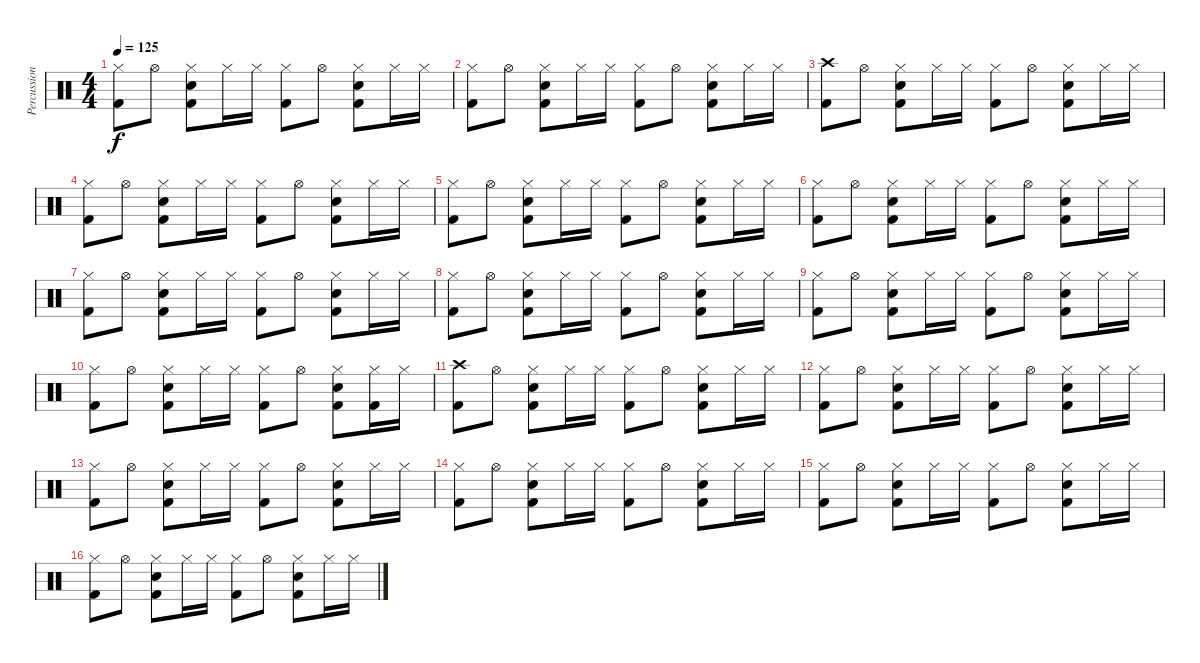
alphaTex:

\track ("Percussion" "Percussion") {instrument percussion}
\staff {score}
\articulation defaults
\ts (4 4)
\tempo 125
\clef neutral
\ks c
("Hi-Hat (closed)" "Kick (hit) 2").8{dy f} "Hi-Hat (open)".8 ("Hi-Hat (closed)" "Electric Snare (hit)" "Kick (hit) 2").8 "Hi-Hat (closed)".16 "Hi-Hat (closed)".16 ("Hi-Hat (closed)" "Kick (hit) 2").8 "Hi-Hat (open)".8 ("Hi-Hat (closed)" "Electric Snare (hit)" "Kick (hit) 2").8 "Hi-Hat (closed)".16 "Hi-Hat (closed)".16 |
("Hi-Hat (closed)" "Kick (hit) 2").8 "Hi-Hat (open)".8 ("Hi-Hat (closed)" "Electric Snare (hit)" "Kick (hit) 2").8 "Hi-Hat (closed)".16 "Hi-Hat (closed)".16 ("Hi-Hat (closed)" "Kick (hit) 2").8 "Hi-Hat (open)".8 ("Hi-Hat (closed)" "Electric Snare (hit)" "Kick (hit) 2").8 "Hi-Hat (closed)".16 "Hi-Hat (closed)".16 |
("Crash high (hit)" "Kick (hit) 2").8 "Hi-Hat (open)".8 ("Hi-Hat (closed)" "Electric Snare (hit)" "Kick (hit) 2").8 "Hi-Hat (closed)".16 "Hi-Hat (closed)".16 ("Hi-Hat (closed)" "Kick (hit) 2").8 "Hi-Hat (open)".8 ("Hi-Hat (closed)" "Electric Snare (hit)" "Kick (hit) 2").8 "Hi-Hat (closed)".16 "Hi-Hat (closed)".16 |
("Hi-Hat (closed)" "Kick (hit) 2").8 "Hi-Hat (open)".8 ("Hi-Hat (closed)" "Electric Snare (hit)" "Kick (hit) 2").8 "Hi-Hat (closed)".16 "Hi-Hat (closed)".16 ("Hi-Hat (closed)" "Kick (hit) 2").8 "Hi-Hat (open)".8 ("Hi-Hat (closed)" "Electric Snare (hit)" "Kick (hit) 2").8 "Hi-Hat (closed)".16 "Hi-Hat (closed)".16 |
("Hi-Hat (closed)" "Kick (hit) 2").8 "Hi-Hat (open)".8 ("Hi-Hat (closed)" "Electric Snare (hit)" "Kick (hit) 2").8 "Hi-Hat (closed)".16 "Hi-Hat (closed)".16 ("Hi-Hat (closed)" "Kick (hit) 2").8 "Hi-Hat (open)".8 ("Hi-Hat (closed)" "Electric Snare (hit)" "Kick (hit) 2").8 "Hi-Hat (closed)".16 "Hi-Hat (closed)".16 |
("Hi-Hat (closed)" "Kick (hit) 2").8 "Hi-Hat (open)".8 ("Hi-Hat (closed)" "Electric Snare (hit)" "Kick (hit) 2").8 "Hi-Hat (closed)".16 "Hi-Hat (closed)".16 ("Hi-Hat (closed)" "Kick (hit) 2").8 "Hi-Hat (open)".8 ("Hi-Hat (closed)" "Electric Snare (hit)" "Kick (hit) 2").8 "Hi-Hat (closed)".16 "Hi-Hat (closed)".16 |
("Hi-Hat (closed)" "Kick (hit) 2").8 "Hi-Hat (open)".8 ("Hi-Hat (closed)" "Electric Snare (hit)" "Kick (hit) 2").8 "Hi-Hat (closed)".16 "Hi-Hat (closed)".16 ("Hi-Hat (closed)" "Kick (hit) 2").8 "Hi-Hat (open)".8 ("Hi-Hat (closed)" "Electric Snare (hit)" "Kick (hit) 2").8 "Hi-Hat (closed)".16 "Hi-Hat (closed)".16 |
("Hi-Hat (closed)" "Kick (hit) 2").8 "Hi-Hat (open)".8 ("Hi-Hat (closed)" "Electric Snare (hit)" "Kick (hit) 2").8 "Hi-Hat (closed)".16 "Hi-Hat (closed)".16 ("Hi-Hat (closed)" "Kick (hit) 2").8 "Hi-Hat (open)".8 ("Hi-Hat (closed)" "Electric Snare (hit)" "Kick (hit) 2").8 "Hi-Hat (closed)".16 "Hi-Hat (closed)".16 |
("Hi-Hat (closed)" "Kick (hit) 2").8 "Hi-Hat (open)".8 ("Hi-Hat (closed)" "Electric Snare (hit)" "Kick (hit) 2").8 "Hi-Hat (closed)".16 "Hi-Hat (closed)".16 ("Hi-Hat (closed)" "Kick (hit) 2").8 "Hi-Hat (open)".8 ("Hi-Hat (closed)" "Electric Snare (hit)" "Kick (hit) 2").8 "Hi-Hat (closed)".16 "Hi-Hat (closed)".16 |
("Hi-Hat (closed)" "Kick (hit) 2").8 "Hi-Hat (open)".8 ("Hi-Hat (closed)" "Electric Snare (hit)" "Kick (hit) 2").8 "Hi-Hat (closed)".16 "Hi-Hat (closed)".16 ("Hi-Hat (closed)" "Kick (hit) 2").8 "Hi-Hat (open)".8 ("Hi-Hat (closed)" "Electric Snare (hit)" "Kick (hit) 2").8 ("Hi-Hat (closed)" "Kick (hit) 2").16 "Hi-Hat (closed)".16 |
("Crash high (hit)" "Kick (hit) 2").8 "Hi-Hat (open)".8 ("Hi-Hat (closed)" "Electric Snare (hit)" "Kick (hit) 2").8 "Hi-Hat (closed)".16 "Hi-Hat (closed)".16 ("Hi-Hat (closed)" "Kick (hit) 2").8 "Hi-Hat (open)".8 ("Hi-Hat (closed)" "Electric Snare (hit)" "Kick (hit) 2").8 "Hi-Hat (closed)".16 "Hi-Hat (closed)".16 |
("Hi-Hat (closed)" "Kick (hit) 2").8 "Hi-Hat (open)".8 ("Hi-Hat (closed)" "Electric Snare (hit)" "Kick (hit) 2").8 "Hi-Hat (closed)".16 "Hi-Hat (closed)".16 ("Hi-Hat (closed)" "Kick (hit) 2").8 "Hi-Hat (open)".8 ("Hi-Hat (closed)" "Electric Snare (hit)" "Kick (hit) 2").8 "Hi-Hat (closed)".16 "Hi-Hat (closed)".16 |
("Hi-Hat (closed)" "Kick (hit) 2").8 "Hi-Hat (open)".8 ("Hi-Hat (closed)" "Electric Snare (hit)" "Kick (hit) 2").8 "Hi-Hat (closed)".16 "Hi-Hat (closed)".16 ("Hi-Hat (closed)" "Kick (hit) 2").8 "Hi-Hat (open)".8 ("Hi-Hat (closed)" "Electric Snare (hit)" "Kick (hit) 2").8 "Hi-Hat (closed)".16 "Hi-Hat (closed)".16 |
("Hi-Hat (closed)" "Kick (hit) 2").8 "Hi-Hat (open)".8 ("Hi-Hat (closed)" "Electric Snare (hit)" "Kick (hit) 2").8 "Hi-Hat (closed)".16 "Hi-Hat (closed)".16 ("Hi-Hat (closed)" "Kick (hit) 2").8 "Hi-Hat (open)".8 ("Hi-Hat (closed)" "Electric Snare (hit)" "Kick (hit) 2").8 "Hi-Hat (closed)".16 "Hi-Hat (closed)".16 |
("Hi-Hat (closed)" "Kick (hit) 2").8 "Hi-Hat (open)".8 ("Hi-Hat (closed)" "Electric Snare (hit)" "Kick (hit) 2").8 "Hi-Hat (closed)".16 "Hi-Hat (closed)".16 ("Hi-Hat (closed)" "Kick (hit) 2").8 "Hi-Hat (open)".8 ("Hi-Hat (closed)" "Electric Snare (hit)" "Kick (hit) 2").8 "Hi-Hat (closed)".16 "Hi-Hat (closed)".16 |
("Hi-Hat (closed)" "Kick (hit) 2").8 "Hi-Hat (open)".8 ("Hi-Hat (closed)" "Electric Snare (hit)" "Kick (hit) 2").8 "Hi-Hat (closed)".16 "Hi-Hat (closed)".16 ("Hi-Hat (closed)" "Kick (hit) 2").8 "Hi-Hat (open)".8 ("Hi-Hat (closed)" "Electric Snare (hit)" "Kick (hit) 2").8 "Hi-Hat (closed)".16 "Hi-Hat (closed)".16
